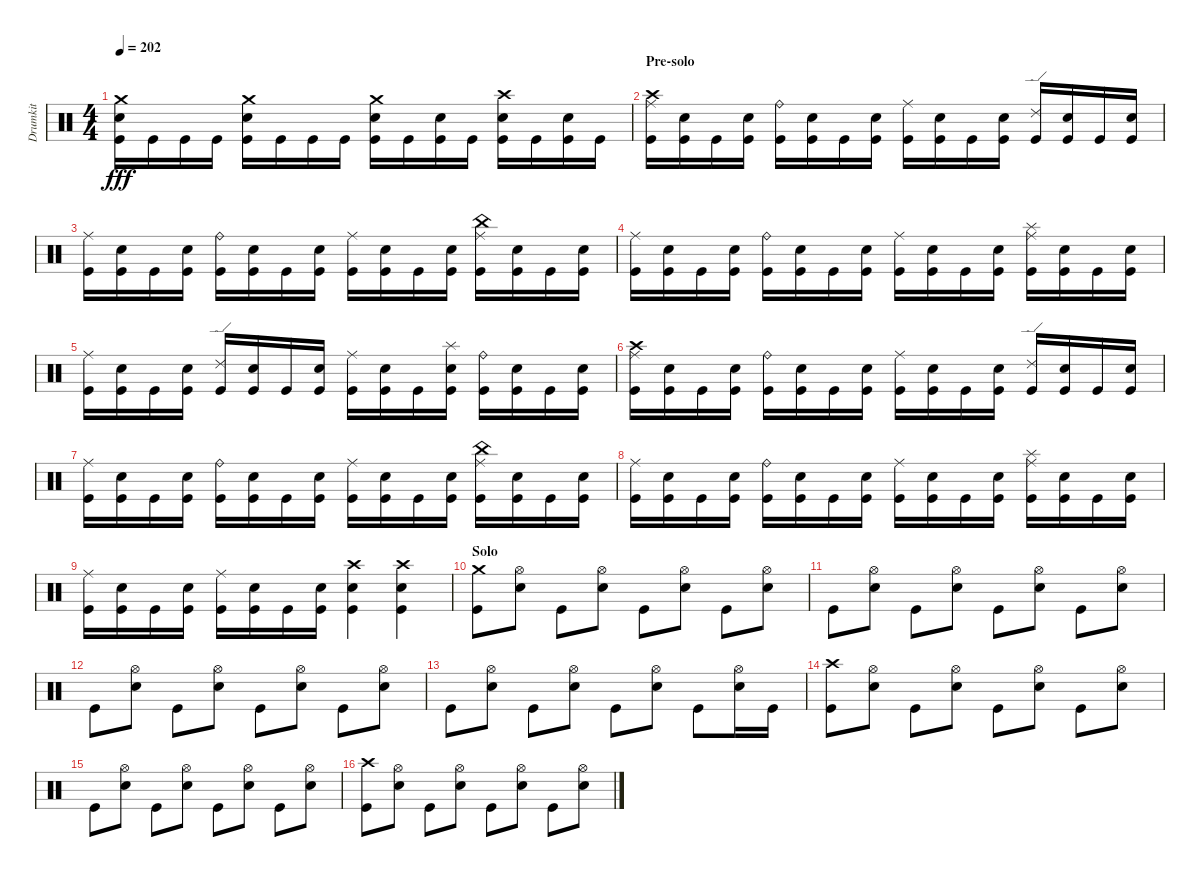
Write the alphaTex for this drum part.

\track ("Drumkit" "Drumkit") {instrument percussion}
\staff {score}
\articulation defaults
\ts (4 4)
\tempo 202
\clef neutral
\ks c
("Crash medium (hit)" "Snare (hit) 2" "Kick (hit)").16{dy fff} "Kick (hit)".16 "Kick (hit)".16 "Kick (hit)".16 ("Crash medium (hit)" "Snare (hit) 2" "Kick (hit)").16 "Kick (hit)".16 "Kick (hit)".16 "Kick (hit)".16 ("Snare (hit) 2" "Crash medium (hit)" "Kick (hit)").16 "Kick (hit)".16 ("Snare (hit) 2" "Kick (hit)").16 "Kick (hit)".16 ("Snare (hit) 2" "Crash high (hit)" "Kick (hit)").16 "Kick (hit)".16 ("Snare (hit) 2" "Kick (hit)").16 "Kick (hit)".16 |
\section ("" "Pre-solo")
("Crash high (hit)" "Ride (middle)" "Kick (hit)").16 ("Snare (hit) 2" "Kick (hit)").16 "Kick (hit)".16 ("Snare (hit) 2" "Kick (hit)").16 ("Ride (bell)" "Kick (hit)").16 ("Snare (hit) 2" "Kick (hit)").16 "Kick (hit)".16 ("Snare (hit) 2" "Kick (hit)").16 ("Ride (middle)" "Kick (hit)").16 ("Snare (hit) 2" "Kick (hit)").16 "Kick (hit)".16 ("Snare (hit) 2" "Kick (hit)").16 ("Ride (edge) 2" "Kick (hit)").16 ("Snare (hit) 2" "Kick (hit)").16 "Kick (hit)".16 ("Snare (hit) 2" "Kick (hit)").16 |
("Ride (middle)" "Kick (hit)").16 ("Snare (hit) 2" "Kick (hit)").16 "Kick (hit)".16 ("Snare (hit) 2" "Kick (hit)").16 ("Ride (bell)" "Kick (hit)").16 ("Snare (hit) 2" "Kick (hit)").16 "Kick (hit)".16 ("Snare (hit) 2" "Kick (hit)").16 ("Ride (middle)" "Kick (hit)").16 ("Snare (hit) 2" "Kick (hit)").16 "Kick (hit)".16 ("Snare (hit) 2" "Kick (hit)").16 ("China (hit)" "Ride (middle)" "Kick (hit)").16 ("Snare (hit) 2" "Kick (hit)").16 "Kick (hit)".16 ("Snare (hit) 2" "Kick (hit)").16 |
("Ride (middle)" "Kick (hit)").16 ("Snare (hit) 2" "Kick (hit)").16 "Kick (hit)".16 ("Snare (hit) 2" "Kick (hit)").16 ("Ride (bell)" "Kick (hit)").16 ("Snare (hit) 2" "Kick (hit)").16 "Kick (hit)".16 ("Snare (hit) 2" "Kick (hit)").16 ("Ride (middle)" "Kick (hit)").16 ("Snare (hit) 2" "Kick (hit)").16 "Kick (hit)".16 ("Snare (hit) 2" "Kick (hit)").16 ("Splash (hit)" "Ride (middle)" "Kick (hit)").16 ("Snare (hit) 2" "Kick (hit)").16 "Kick (hit)".16 ("Snare (hit) 2" "Kick (hit)").16 |
("Ride (middle)" "Kick (hit)").16 ("Snare (hit) 2" "Kick (hit)").16 "Kick (hit)".16 ("Snare (hit) 2" "Kick (hit)").16 ("Ride (edge) 2" "Kick (hit)").16 ("Snare (hit) 2" "Kick (hit)").16 "Kick (hit)".16 ("Snare (hit) 2" "Kick (hit)").16 ("Ride (middle)" "Kick (hit)").16 ("Snare (hit) 2" "Kick (hit)").16 "Kick (hit)".16 ("Splash (hit)" "Snare (hit) 2" "Kick (hit)").16 ("Ride (bell)" "Kick (hit)").16 ("Snare (hit) 2" "Kick (hit)").16 "Kick (hit)".16 ("Snare (hit) 2" "Kick (hit)").16 |
("Crash high (hit)" "Ride (middle)" "Kick (hit)").16 ("Snare (hit) 2" "Kick (hit)").16 "Kick (hit)".16 ("Snare (hit) 2" "Kick (hit)").16 ("Ride (bell)" "Kick (hit)").16 ("Snare (hit) 2" "Kick (hit)").16 "Kick (hit)".16 ("Snare (hit) 2" "Kick (hit)").16 ("Ride (middle)" "Kick (hit)").16 ("Snare (hit) 2" "Kick (hit)").16 "Kick (hit)".16 ("Snare (hit) 2" "Kick (hit)").16 ("Ride (edge) 2" "Kick (hit)").16 ("Snare (hit) 2" "Kick (hit)").16 "Kick (hit)".16 ("Snare (hit) 2" "Kick (hit)").16 |
("Ride (middle)" "Kick (hit)").16 ("Snare (hit) 2" "Kick (hit)").16 "Kick (hit)".16 ("Snare (hit) 2" "Kick (hit)").16 ("Ride (bell)" "Kick (hit)").16 ("Snare (hit) 2" "Kick (hit)").16 "Kick (hit)".16 ("Snare (hit) 2" "Kick (hit)").16 ("Ride (middle)" "Kick (hit)").16 ("Snare (hit) 2" "Kick (hit)").16 "Kick (hit)".16 ("Snare (hit) 2" "Kick (hit)").16 ("Ride (middle)" "China (hit)" "Kick (hit)").16 ("Snare (hit) 2" "Kick (hit)").16 "Kick (hit)".16 ("Snare (hit) 2" "Kick (hit)").16 |
("Ride (middle)" "Kick (hit)").16 ("Snare (hit) 2" "Kick (hit)").16 "Kick (hit)".16 ("Snare (hit) 2" "Kick (hit)").16 ("Ride (bell)" "Kick (hit)").16 ("Snare (hit) 2" "Kick (hit)").16 "Kick (hit)".16 ("Snare (hit) 2" "Kick (hit)").16 ("Ride (middle)" "Kick (hit)").16 ("Snare (hit) 2" "Kick (hit)").16 "Kick (hit)".16 ("Snare (hit) 2" "Kick (hit)").16 ("Splash (hit)" "Ride (middle)" "Kick (hit)").16 ("Snare (hit) 2" "Kick (hit)").16 "Kick (hit)".16 ("Snare (hit) 2" "Kick (hit)").16 |
("Ride (middle)" "Kick (hit)").16 ("Snare (hit) 2" "Kick (hit)").16 "Kick (hit)".16 ("Snare (hit) 2" "Kick (hit)").16 ("Ride (middle)" "Kick (hit)").16 ("Snare (hit) 2" "Kick (hit)").16 "Kick (hit)".16 ("Snare (hit) 2" "Kick (hit)").16 ("Crash high (hit)" "Snare (hit) 2" "Kick (hit)").4 ("Snare (hit) 2" "Crash high (hit)" "Kick (hit)").4 |
\section ("" "Solo")
("Crash medium (hit)" "Kick (hit)").8 ("Snare (hit) 2" "Hi-Hat (open)").8 "Kick (hit)".8 ("Snare (hit) 2" "Hi-Hat (open)").8 "Kick (hit)".8 ("Snare (hit) 2" "Hi-Hat (open)").8 "Kick (hit)".8 ("Snare (hit) 2" "Hi-Hat (open)").8 |
"Kick (hit)".8 ("Snare (hit) 2" "Hi-Hat (open)").8 "Kick (hit)".8 ("Snare (hit) 2" "Hi-Hat (open)").8 "Kick (hit)".8 ("Snare (hit) 2" "Hi-Hat (open)").8 "Kick (hit)".8 ("Snare (hit) 2" "Hi-Hat (open)").8 |
"Kick (hit)".8 ("Snare (hit) 2" "Hi-Hat (open)").8 "Kick (hit)".8 ("Snare (hit) 2" "Hi-Hat (open)").8 "Kick (hit)".8 ("Snare (hit) 2" "Hi-Hat (open)").8 "Kick (hit)".8 ("Snare (hit) 2" "Hi-Hat (open)").8 |
"Kick (hit)".8 ("Snare (hit) 2" "Hi-Hat (open)").8 "Kick (hit)".8 ("Snare (hit) 2" "Hi-Hat (open)").8 "Kick (hit)".8 ("Snare (hit) 2" "Hi-Hat (open)").8 "Kick (hit)".8 ("Snare (hit) 2" "Hi-Hat (open)").16 "Kick (hit)".16 |
("Crash high (hit)" "Kick (hit)").8 ("Snare (hit) 2" "Hi-Hat (open)").8 "Kick (hit)".8 ("Snare (hit) 2" "Hi-Hat (open)").8 "Kick (hit)".8 ("Snare (hit) 2" "Hi-Hat (open)").8 "Kick (hit)".8 ("Snare (hit) 2" "Hi-Hat (open)").8 |
"Kick (hit)".8 ("Snare (hit) 2" "Hi-Hat (open)").8 "Kick (hit)".8 ("Snare (hit) 2" "Hi-Hat (open)").8 "Kick (hit)".8 ("Snare (hit) 2" "Hi-Hat (open)").8 "Kick (hit)".8 ("Snare (hit) 2" "Hi-Hat (open)").8 |
("Crash high (hit)" "Kick (hit)").8 ("Snare (hit) 2" "Hi-Hat (open)").8 "Kick (hit)".8 ("Snare (hit) 2" "Hi-Hat (open)").8 "Kick (hit)".8 ("Snare (hit) 2" "Hi-Hat (open)").8 "Kick (hit)".8 ("Snare (hit) 2" "Hi-Hat (open)").8
